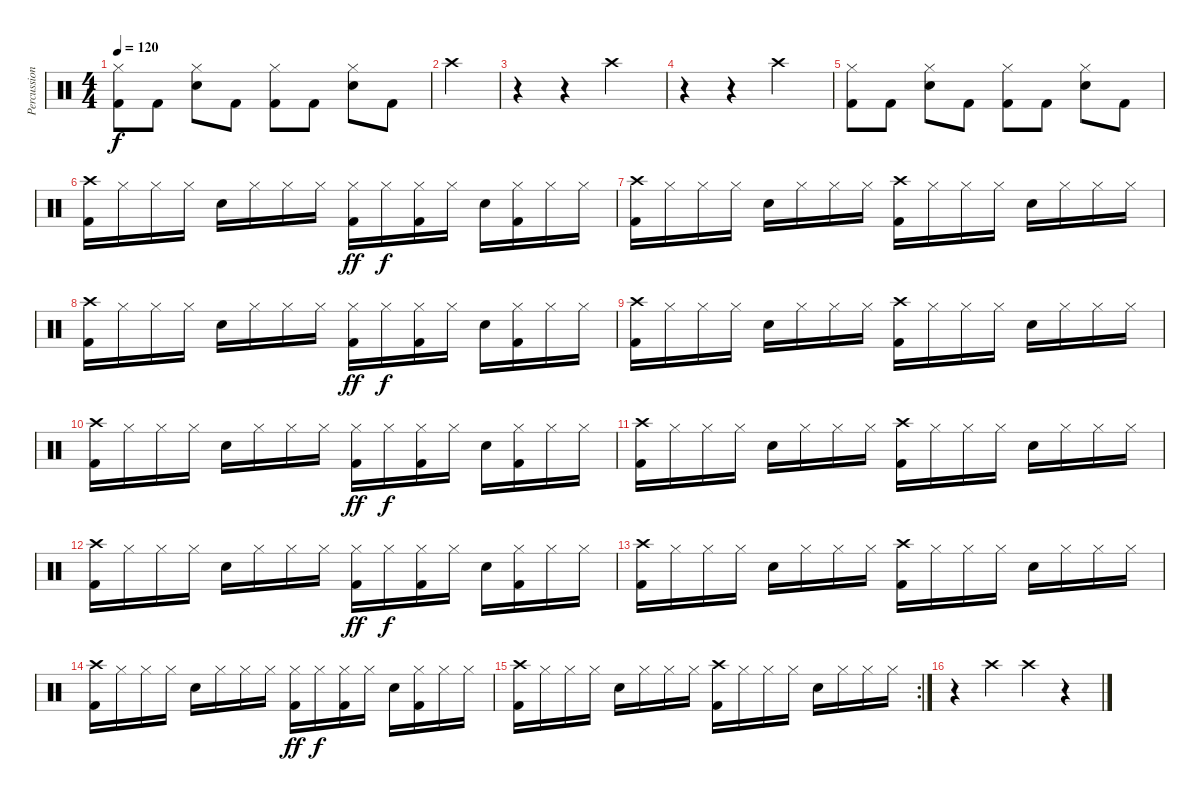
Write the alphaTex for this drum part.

\track ("Percussions" "Percussion") {instrument percussion}
\staff {score}
\articulation defaults
\ts (4 4)
\tempo 120
\clef neutral
\ks c
("Hi-Hat (closed)" "Kick (hit) 2").8{dy f} "Kick (hit) 2".8 ("Hi-Hat (closed)" "Electric Snare (hit)").8 "Kick (hit) 2".8 ("Hi-Hat (closed)" "Kick (hit) 2").8 "Kick (hit) 2".8 ("Hi-Hat (closed)" "Electric Snare (hit)").8 "Kick (hit) 2".8 |
"Crash high (hit)".4 |
r.4 r.4 "Crash high (hit)".2 |
r.4 r.4 "Crash high (hit)".2 |
("Hi-Hat (closed)" "Kick (hit) 2").8 "Kick (hit) 2".8 ("Hi-Hat (closed)" "Electric Snare (hit)").8 "Kick (hit) 2".8 ("Hi-Hat (closed)" "Kick (hit) 2").8 "Kick (hit) 2".8 ("Hi-Hat (closed)" "Electric Snare (hit)").8 "Kick (hit) 2".8 |
("Crash high (hit)" "Kick (hit) 2").16 "Hi-Hat (closed)".16 "Hi-Hat (closed)".16 "Hi-Hat (closed)".16 "Snare (hit) 2".16 "Hi-Hat (closed)".16 "Hi-Hat (closed)".16 "Hi-Hat (closed)".16 ("Hi-Hat (closed)" "Kick (hit) 2").16{dy ff} "Hi-Hat (closed)".16{dy f} ("Hi-Hat (closed)" "Kick (hit) 2").16 "Hi-Hat (closed)".16 "Snare (hit) 2".16 ("Hi-Hat (closed)" "Kick (hit) 2").16 "Hi-Hat (closed)".16 "Hi-Hat (closed)".16 |
("Crash high (hit)" "Kick (hit) 2").16 "Hi-Hat (closed)".16 "Hi-Hat (closed)".16 "Hi-Hat (closed)".16 "Snare (hit) 2".16 "Hi-Hat (closed)".16 "Hi-Hat (closed)".16 "Hi-Hat (closed)".16 ("Crash high (hit)" "Kick (hit) 2").16 "Hi-Hat (closed)".16 "Hi-Hat (closed)".16 "Hi-Hat (closed)".16 "Snare (hit) 2".16 "Hi-Hat (closed)".16 "Hi-Hat (closed)".16 "Hi-Hat (closed)".16 |
("Crash high (hit)" "Kick (hit) 2").16 "Hi-Hat (closed)".16 "Hi-Hat (closed)".16 "Hi-Hat (closed)".16 "Snare (hit) 2".16 "Hi-Hat (closed)".16 "Hi-Hat (closed)".16 "Hi-Hat (closed)".16 ("Hi-Hat (closed)" "Kick (hit) 2").16{dy ff} "Hi-Hat (closed)".16{dy f} ("Hi-Hat (closed)" "Kick (hit) 2").16 "Hi-Hat (closed)".16 "Snare (hit) 2".16 ("Hi-Hat (closed)" "Kick (hit) 2").16 "Hi-Hat (closed)".16 "Hi-Hat (closed)".16 |
("Crash high (hit)" "Kick (hit) 2").16 "Hi-Hat (closed)".16 "Hi-Hat (closed)".16 "Hi-Hat (closed)".16 "Snare (hit) 2".16 "Hi-Hat (closed)".16 "Hi-Hat (closed)".16 "Hi-Hat (closed)".16 ("Crash high (hit)" "Kick (hit) 2").16 "Hi-Hat (closed)".16 "Hi-Hat (closed)".16 "Hi-Hat (closed)".16 "Snare (hit) 2".16 "Hi-Hat (closed)".16 "Hi-Hat (closed)".16 "Hi-Hat (closed)".16 |
("Crash high (hit)" "Kick (hit) 2").16 "Hi-Hat (closed)".16 "Hi-Hat (closed)".16 "Hi-Hat (closed)".16 "Snare (hit) 2".16 "Hi-Hat (closed)".16 "Hi-Hat (closed)".16 "Hi-Hat (closed)".16 ("Hi-Hat (closed)" "Kick (hit) 2").16{dy ff} "Hi-Hat (closed)".16{dy f} ("Hi-Hat (closed)" "Kick (hit) 2").16 "Hi-Hat (closed)".16 "Snare (hit) 2".16 ("Hi-Hat (closed)" "Kick (hit) 2").16 "Hi-Hat (closed)".16 "Hi-Hat (closed)".16 |
("Crash high (hit)" "Kick (hit) 2").16 "Hi-Hat (closed)".16 "Hi-Hat (closed)".16 "Hi-Hat (closed)".16 "Snare (hit) 2".16 "Hi-Hat (closed)".16 "Hi-Hat (closed)".16 "Hi-Hat (closed)".16 ("Crash high (hit)" "Kick (hit) 2").16 "Hi-Hat (closed)".16 "Hi-Hat (closed)".16 "Hi-Hat (closed)".16 "Snare (hit) 2".16 "Hi-Hat (closed)".16 "Hi-Hat (closed)".16 "Hi-Hat (closed)".16 |
("Crash high (hit)" "Kick (hit) 2").16 "Hi-Hat (closed)".16 "Hi-Hat (closed)".16 "Hi-Hat (closed)".16 "Snare (hit) 2".16 "Hi-Hat (closed)".16 "Hi-Hat (closed)".16 "Hi-Hat (closed)".16 ("Hi-Hat (closed)" "Kick (hit) 2").16{dy ff} "Hi-Hat (closed)".16{dy f} ("Hi-Hat (closed)" "Kick (hit) 2").16 "Hi-Hat (closed)".16 "Snare (hit) 2".16 ("Hi-Hat (closed)" "Kick (hit) 2").16 "Hi-Hat (closed)".16 "Hi-Hat (closed)".16 |
("Crash high (hit)" "Kick (hit) 2").16 "Hi-Hat (closed)".16 "Hi-Hat (closed)".16 "Hi-Hat (closed)".16 "Snare (hit) 2".16 "Hi-Hat (closed)".16 "Hi-Hat (closed)".16 "Hi-Hat (closed)".16 ("Crash high (hit)" "Kick (hit) 2").16 "Hi-Hat (closed)".16 "Hi-Hat (closed)".16 "Hi-Hat (closed)".16 "Snare (hit) 2".16 "Hi-Hat (closed)".16 "Hi-Hat (closed)".16 "Hi-Hat (closed)".16 |
("Crash high (hit)" "Kick (hit) 2").16 "Hi-Hat (closed)".16 "Hi-Hat (closed)".16 "Hi-Hat (closed)".16 "Snare (hit) 2".16 "Hi-Hat (closed)".16 "Hi-Hat (closed)".16 "Hi-Hat (closed)".16 ("Hi-Hat (closed)" "Kick (hit) 2").16{dy ff} "Hi-Hat (closed)".16{dy f} ("Hi-Hat (closed)" "Kick (hit) 2").16 "Hi-Hat (closed)".16 "Snare (hit) 2".16 ("Hi-Hat (closed)" "Kick (hit) 2").16 "Hi-Hat (closed)".16 "Hi-Hat (closed)".16 |
\rc 2
("Crash high (hit)" "Kick (hit) 2").16 "Hi-Hat (closed)".16 "Hi-Hat (closed)".16 "Hi-Hat (closed)".16 "Snare (hit) 2".16 "Hi-Hat (closed)".16 "Hi-Hat (closed)".16 "Hi-Hat (closed)".16 ("Crash high (hit)" "Kick (hit) 2").16 "Hi-Hat (closed)".16 "Hi-Hat (closed)".16 "Hi-Hat (closed)".16 "Snare (hit) 2".16 "Hi-Hat (closed)".16 "Hi-Hat (closed)".16 "Hi-Hat (closed)".16 |
r.4 "Crash high (hit)".4 "Crash high (hit)".4 r.4
